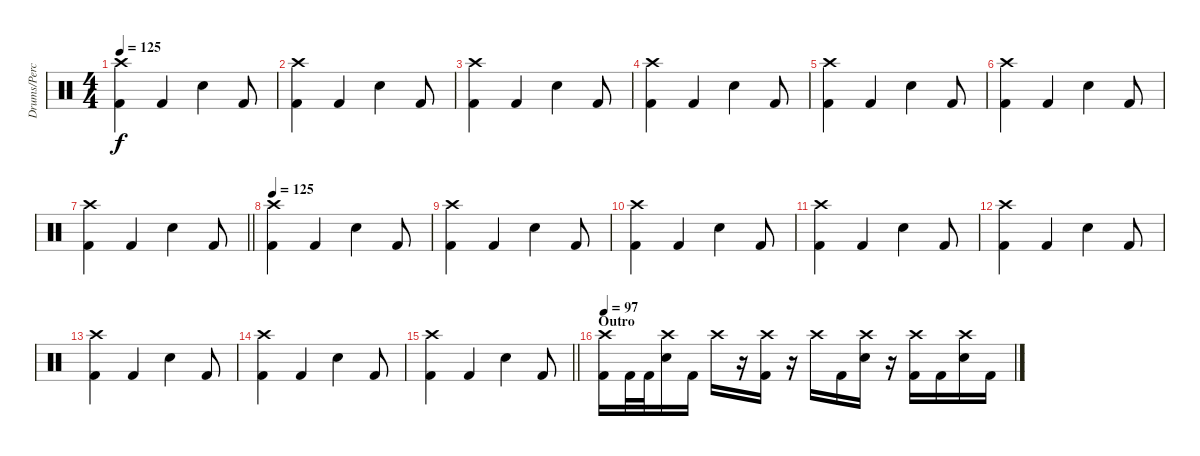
\track ("Drums/Perc" "Drums/Perc") {instrument percussion}
\staff {score}
\articulation defaults
\ts (4 4)
\tempo 125
\clef neutral
\ks c
("Crash high (hit)" "Kick (hit) 2").4{dy f} "Kick (hit) 2".4 "Snare (hit) 2".4 "Kick (hit) 2".8 |
("Crash high (hit)" "Kick (hit) 2").4 "Kick (hit) 2".4 "Snare (hit) 2".4 "Kick (hit) 2".8 |
("Crash high (hit)" "Kick (hit) 2").4 "Kick (hit) 2".4 "Snare (hit) 2".4 "Kick (hit) 2".8 |
("Crash high (hit)" "Kick (hit) 2").4 "Kick (hit) 2".4 "Snare (hit) 2".4 "Kick (hit) 2".8 |
("Crash high (hit)" "Kick (hit) 2").4 "Kick (hit) 2".4 "Snare (hit) 2".4 "Kick (hit) 2".8 |
("Crash high (hit)" "Kick (hit) 2").4 "Kick (hit) 2".4 "Snare (hit) 2".4 "Kick (hit) 2".8 |
\barLineRight lightlight
("Crash high (hit)" "Kick (hit) 2").4 "Kick (hit) 2".4 "Snare (hit) 2".4 "Kick (hit) 2".8 |
\tempo 125
("Crash high (hit)" "Kick (hit) 2").4 "Kick (hit) 2".4 "Snare (hit) 2".4 "Kick (hit) 2".8 |
("Crash high (hit)" "Kick (hit) 2").4 "Kick (hit) 2".4 "Snare (hit) 2".4 "Kick (hit) 2".8 |
("Crash high (hit)" "Kick (hit) 2").4 "Kick (hit) 2".4 "Snare (hit) 2".4 "Kick (hit) 2".8 |
("Crash high (hit)" "Kick (hit) 2").4 "Kick (hit) 2".4 "Snare (hit) 2".4 "Kick (hit) 2".8 |
("Crash high (hit)" "Kick (hit) 2").4 "Kick (hit) 2".4 "Snare (hit) 2".4 "Kick (hit) 2".8 |
("Crash high (hit)" "Kick (hit) 2").4 "Kick (hit) 2".4 "Snare (hit) 2".4 "Kick (hit) 2".8 |
("Crash high (hit)" "Kick (hit) 2").4 "Kick (hit) 2".4 "Snare (hit) 2".4 "Kick (hit) 2".8 |
\barLineRight lightlight
("Crash high (hit)" "Kick (hit) 2").4 "Kick (hit) 2".4 "Snare (hit) 2".4 "Kick (hit) 2".8 |
\section ("" "Outro")
\tempo 97
("Crash high (hit)" "Kick (hit) 2").16 "Kick (hit) 2".32 "Kick (hit) 2".32 ("Crash high (hit)" "Snare (hit) 2").16 "Kick (hit) 2".16 "Crash high (hit)".16 r.16 ("Crash high (hit)" "Kick (hit) 2").16 r.16 "Crash high (hit)".16 "Kick (hit) 2".16 ("Crash high (hit)" "Snare (hit) 2").16 r.16 ("Crash high (hit)" "Kick (hit) 2").16 "Kick (hit) 2".16 ("Crash high (hit)" "Snare (hit) 2").16 "Kick (hit) 2".16
